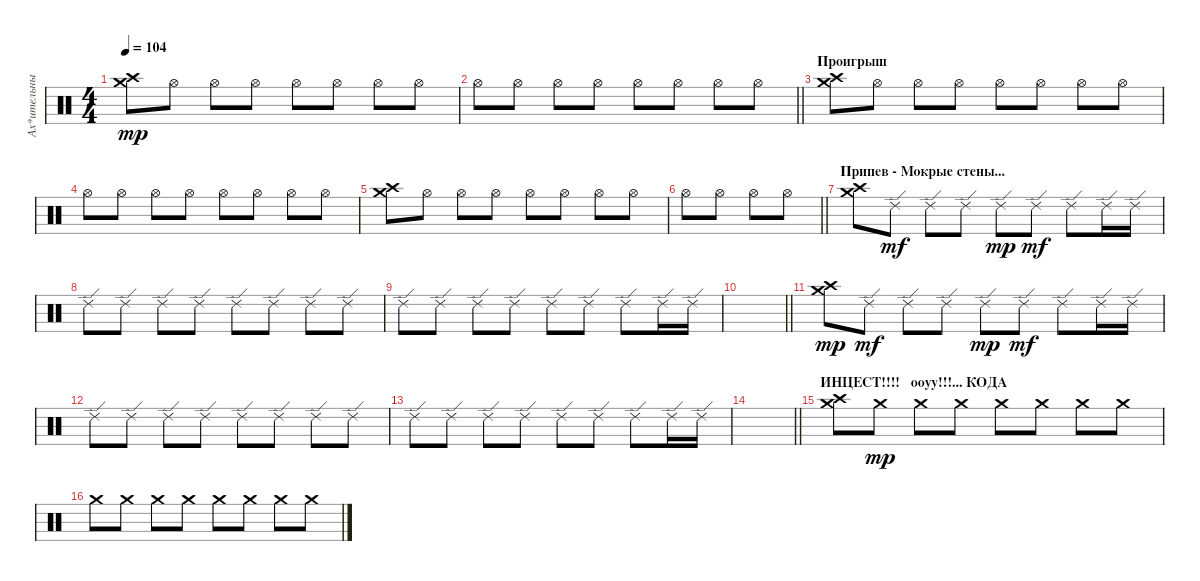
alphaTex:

\track ("Ах*ительный барабанщик" "Ах*ительны") {instrument percussion}
\staff {score}
\articulation defaults
\ts (4 4)
\tempo 104
\clef neutral
\ks c
("Crash medium (hit)" "Crash high (hit)").8{dy mp} "Hi-Hat (open)".8 "Hi-Hat (open)".8 "Hi-Hat (open)".8 "Hi-Hat (open)".8 "Hi-Hat (open)".8 "Hi-Hat (open)".8 "Hi-Hat (open)".8 |
\barLineRight lightlight "Hi-Hat (open)".8 "Hi-Hat (open)".8 "Hi-Hat (open)".8 "Hi-Hat (open)".8 "Hi-Hat (open)".8 "Hi-Hat (open)".8 "Hi-Hat (open)".8 "Hi-Hat (open)".8
|
\section ("" "Проигрыш")
("Crash medium (hit)" "Crash high (hit)").8 "Hi-Hat (open)".8 "Hi-Hat (open)".8 "Hi-Hat (open)".8 "Hi-Hat (open)".8 "Hi-Hat (open)".8 "Hi-Hat (open)".8 "Hi-Hat (open)".8 |
"Hi-Hat (open)".8 "Hi-Hat (open)".8 "Hi-Hat (open)".8 "Hi-Hat (open)".8 "Hi-Hat (open)".8 "Hi-Hat (open)".8 "Hi-Hat (open)".8 "Hi-Hat (open)".8 |
("Crash medium (hit)" "Crash high (hit)").8 "Hi-Hat (open)".8 "Hi-Hat (open)".8 "Hi-Hat (open)".8 "Hi-Hat (open)".8 "Hi-Hat (open)".8 "Hi-Hat (open)".8 "Hi-Hat (open)".8 |
\barLineRight lightlight "Hi-Hat (open)".8 "Hi-Hat (open)".8 "Hi-Hat (open)".8 "Hi-Hat (open)".8
|
\section ("" "Припев - Мокрые стены...")
("Crash high (hit)" "Crash medium (hit)").8 "Ride (edge) 2".8{dy mf} "Ride (edge) 2".8 "Ride (edge) 2".8 "Ride (edge) 2".8{dy mp} "Ride (edge) 2".8{dy mf} "Ride (edge) 2".8 "Ride (edge) 2".16 "Ride (edge) 2".16 |
"Ride (edge) 2".8 "Ride (edge) 2".8 "Ride (edge) 2".8 "Ride (edge) 2".8 "Ride (edge) 2".8 "Ride (edge) 2".8 "Ride (edge) 2".8 "Ride (edge) 2".8 |
"Ride (edge) 2".8 "Ride (edge) 2".8 "Ride (edge) 2".8 "Ride (edge) 2".8 "Ride (edge) 2".8 "Ride (edge) 2".8 "Ride (edge) 2".8 "Ride (edge) 2".16 "Ride (edge) 2".16 |
\barLineRight lightlight
|
("Crash high (hit)" "Crash medium (hit)").8{dy mp} "Ride (edge) 2".8{dy mf} "Ride (edge) 2".8 "Ride (edge) 2".8 "Ride (edge) 2".8{dy mp} "Ride (edge) 2".8{dy mf} "Ride (edge) 2".8 "Ride (edge) 2".16 "Ride (edge) 2".16 |
"Ride (edge) 2".8 "Ride (edge) 2".8 "Ride (edge) 2".8 "Ride (edge) 2".8 "Ride (edge) 2".8 "Ride (edge) 2".8 "Ride (edge) 2".8 "Ride (edge) 2".8 |
"Ride (edge) 2".8 "Ride (edge) 2".8 "Ride (edge) 2".8 "Ride (edge) 2".8 "Ride (edge) 2".8 "Ride (edge) 2".8 "Ride (edge) 2".8 "Ride (edge) 2".16 "Ride (edge) 2".16 |
\barLineRight lightlight
|
\section ("" "ИНЦЕСТ!!!!   ооуу!!!... КОДА")
("Crash high (hit)" "Crash medium (hit)").8 "Crash medium (hit)".8{dy mp} "Crash medium (hit)".8 "Crash medium (hit)".8 "Crash medium (hit)".8 "Crash medium (hit)".8 "Crash medium (hit)".8 "Crash medium (hit)".8 |
"Crash medium (hit)".8 "Crash medium (hit)".8 "Crash medium (hit)".8 "Crash medium (hit)".8 "Crash medium (hit)".8 "Crash medium (hit)".8 "Crash medium (hit)".8 "Crash medium (hit)".8
